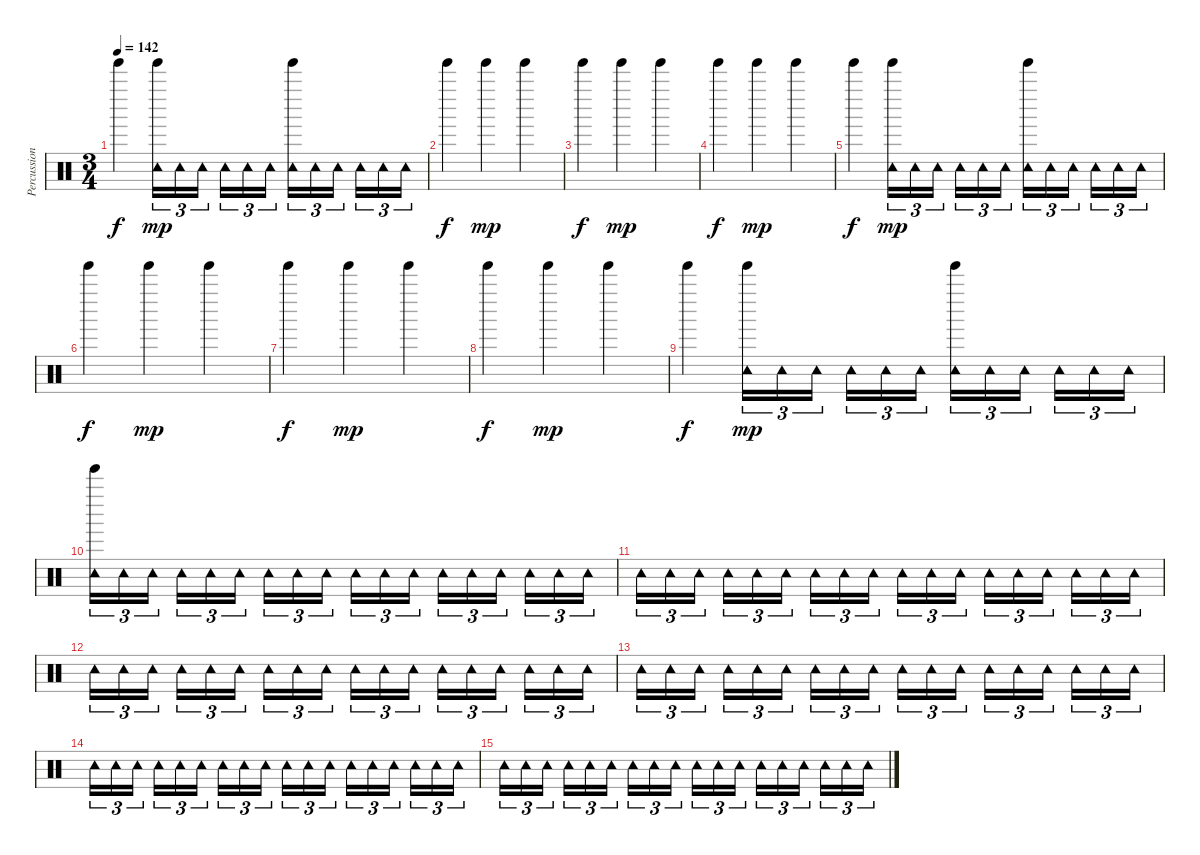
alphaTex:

\track ("Percussion" "Percussion") {instrument percussion}
\staff {score}
\articulation defaults
\ts (3 4)
\tempo 142
\clef neutral
\ks c "Tinkle Bell (hit)".4{dy f}
("Tambourine (hit)" "Tinkle Bell (hit)").16{tu (3 2) dy mp} "Tambourine (hit)".16{tu (3 2)} "Tambourine (hit)".16{tu (3 2) beam splitsecondary} "Tambourine (hit)".16{tu (3 2)} "Tambourine (hit)".16{tu (3 2)} "Tambourine (hit)".16{tu (3 2)} ("Tambourine (hit)" "Tinkle Bell (hit)").16{tu (3 2)} "Tambourine (hit)".16{tu (3 2)} "Tambourine (hit)".16{tu (3 2) beam splitsecondary} "Tambourine (hit)".16{tu (3 2)} "Tambourine (hit)".16{tu (3 2)} "Tambourine (hit)".16{tu (3 2)} |
"Tinkle Bell (hit)".4{dy f} "Tinkle Bell (hit)".4{dy mp} "Tinkle Bell (hit)".4 |
"Tinkle Bell (hit)".4{dy f} "Tinkle Bell (hit)".4{dy mp} "Tinkle Bell (hit)".4 |
"Tinkle Bell (hit)".4{dy f} "Tinkle Bell (hit)".4{dy mp} "Tinkle Bell (hit)".4 |
"Tinkle Bell (hit)".4{dy f} ("Tambourine (hit)" "Tinkle Bell (hit)").16{tu (3 2) dy mp} "Tambourine (hit)".16{tu (3 2)} "Tambourine (hit)".16{tu (3 2) beam splitsecondary} "Tambourine (hit)".16{tu (3 2)} "Tambourine (hit)".16{tu (3 2)} "Tambourine (hit)".16{tu (3 2)} ("Tambourine (hit)" "Tinkle Bell (hit)").16{tu (3 2)} "Tambourine (hit)".16{tu (3 2)} "Tambourine (hit)".16{tu (3 2) beam splitsecondary} "Tambourine (hit)".16{tu (3 2)} "Tambourine (hit)".16{tu (3 2)} "Tambourine (hit)".16{tu (3 2)} |
"Tinkle Bell (hit)".4{dy f} "Tinkle Bell (hit)".4{dy mp} "Tinkle Bell (hit)".4 |
"Tinkle Bell (hit)".4{dy f} "Tinkle Bell (hit)".4{dy mp} "Tinkle Bell (hit)".4 |
"Tinkle Bell (hit)".4{dy f} "Tinkle Bell (hit)".4{dy mp} "Tinkle Bell (hit)".4 |
"Tinkle Bell (hit)".4{dy f} ("Tambourine (hit)" "Tinkle Bell (hit)").16{tu (3 2) dy mp} "Tambourine (hit)".16{tu (3 2)} "Tambourine (hit)".16{tu (3 2) beam splitsecondary} "Tambourine (hit)".16{tu (3 2)} "Tambourine (hit)".16{tu (3 2)} "Tambourine (hit)".16{tu (3 2)} ("Tambourine (hit)" "Tinkle Bell (hit)").16{tu (3 2)} "Tambourine (hit)".16{tu (3 2)} "Tambourine (hit)".16{tu (3 2) beam splitsecondary} "Tambourine (hit)".16{tu (3 2)} "Tambourine (hit)".16{tu (3 2)} "Tambourine (hit)".16{tu (3 2)} |
("Tinkle Bell (hit)" "Tambourine (hit)").16{tu (3 2)} "Tambourine (hit)".16{tu (3 2)} "Tambourine (hit)".16{tu (3 2) beam splitsecondary} "Tambourine (hit)".16{tu (3 2)} "Tambourine (hit)".16{tu (3 2)} "Tambourine (hit)".16{tu (3 2)} "Tambourine (hit)".16{tu (3 2)} "Tambourine (hit)".16{tu (3 2)} "Tambourine (hit)".16{tu (3 2) beam splitsecondary} "Tambourine (hit)".16{tu (3 2)} "Tambourine (hit)".16{tu (3 2)} "Tambourine (hit)".16{tu (3 2)} "Tambourine (hit)".16{tu (3 2)} "Tambourine (hit)".16{tu (3 2)} "Tambourine (hit)".16{tu (3 2) beam splitsecondary} "Tambourine (hit)".16{tu (3 2)} "Tambourine (hit)".16{tu (3 2)} "Tambourine (hit)".16{tu (3 2)} |
"Tambourine (hit)".16{tu (3 2)} "Tambourine (hit)".16{tu (3 2)} "Tambourine (hit)".16{tu (3 2) beam splitsecondary} "Tambourine (hit)".16{tu (3 2)} "Tambourine (hit)".16{tu (3 2)} "Tambourine (hit)".16{tu (3 2)} "Tambourine (hit)".16{tu (3 2)} "Tambourine (hit)".16{tu (3 2)} "Tambourine (hit)".16{tu (3 2) beam splitsecondary} "Tambourine (hit)".16{tu (3 2)} "Tambourine (hit)".16{tu (3 2)} "Tambourine (hit)".16{tu (3 2)} "Tambourine (hit)".16{tu (3 2)} "Tambourine (hit)".16{tu (3 2)} "Tambourine (hit)".16{tu (3 2) beam splitsecondary} "Tambourine (hit)".16{tu (3 2)} "Tambourine (hit)".16{tu (3 2)} "Tambourine (hit)".16{tu (3 2)} |
"Tambourine (hit)".16{tu (3 2)} "Tambourine (hit)".16{tu (3 2)} "Tambourine (hit)".16{tu (3 2) beam splitsecondary} "Tambourine (hit)".16{tu (3 2)} "Tambourine (hit)".16{tu (3 2)} "Tambourine (hit)".16{tu (3 2)} "Tambourine (hit)".16{tu (3 2)} "Tambourine (hit)".16{tu (3 2)} "Tambourine (hit)".16{tu (3 2) beam splitsecondary} "Tambourine (hit)".16{tu (3 2)} "Tambourine (hit)".16{tu (3 2)} "Tambourine (hit)".16{tu (3 2)} "Tambourine (hit)".16{tu (3 2)} "Tambourine (hit)".16{tu (3 2)} "Tambourine (hit)".16{tu (3 2) beam splitsecondary} "Tambourine (hit)".16{tu (3 2)} "Tambourine (hit)".16{tu (3 2)} "Tambourine (hit)".16{tu (3 2)} |
"Tambourine (hit)".16{tu (3 2)} "Tambourine (hit)".16{tu (3 2)} "Tambourine (hit)".16{tu (3 2) beam splitsecondary} "Tambourine (hit)".16{tu (3 2)} "Tambourine (hit)".16{tu (3 2)} "Tambourine (hit)".16{tu (3 2)} "Tambourine (hit)".16{tu (3 2)} "Tambourine (hit)".16{tu (3 2)} "Tambourine (hit)".16{tu (3 2) beam splitsecondary} "Tambourine (hit)".16{tu (3 2)} "Tambourine (hit)".16{tu (3 2)} "Tambourine (hit)".16{tu (3 2)} "Tambourine (hit)".16{tu (3 2)} "Tambourine (hit)".16{tu (3 2)} "Tambourine (hit)".16{tu (3 2) beam splitsecondary} "Tambourine (hit)".16{tu (3 2)} "Tambourine (hit)".16{tu (3 2)} "Tambourine (hit)".16{tu (3 2)} |
"Tambourine (hit)".16{tu (3 2)} "Tambourine (hit)".16{tu (3 2)} "Tambourine (hit)".16{tu (3 2) beam splitsecondary} "Tambourine (hit)".16{tu (3 2)} "Tambourine (hit)".16{tu (3 2)} "Tambourine (hit)".16{tu (3 2)} "Tambourine (hit)".16{tu (3 2)} "Tambourine (hit)".16{tu (3 2)} "Tambourine (hit)".16{tu (3 2) beam splitsecondary} "Tambourine (hit)".16{tu (3 2)} "Tambourine (hit)".16{tu (3 2)} "Tambourine (hit)".16{tu (3 2)} "Tambourine (hit)".16{tu (3 2)} "Tambourine (hit)".16{tu (3 2)} "Tambourine (hit)".16{tu (3 2) beam splitsecondary} "Tambourine (hit)".16{tu (3 2)} "Tambourine (hit)".16{tu (3 2)} "Tambourine (hit)".16{tu (3 2)} |
"Tambourine (hit)".16{tu (3 2)} "Tambourine (hit)".16{tu (3 2)} "Tambourine (hit)".16{tu (3 2) beam splitsecondary} "Tambourine (hit)".16{tu (3 2)} "Tambourine (hit)".16{tu (3 2)} "Tambourine (hit)".16{tu (3 2)} "Tambourine (hit)".16{tu (3 2)} "Tambourine (hit)".16{tu (3 2)} "Tambourine (hit)".16{tu (3 2) beam splitsecondary} "Tambourine (hit)".16{tu (3 2)} "Tambourine (hit)".16{tu (3 2)} "Tambourine (hit)".16{tu (3 2)} "Tambourine (hit)".16{tu (3 2)} "Tambourine (hit)".16{tu (3 2)} "Tambourine (hit)".16{tu (3 2) beam splitsecondary} "Tambourine (hit)".16{tu (3 2)} "Tambourine (hit)".16{tu (3 2)} "Tambourine (hit)".16{tu (3 2)}
